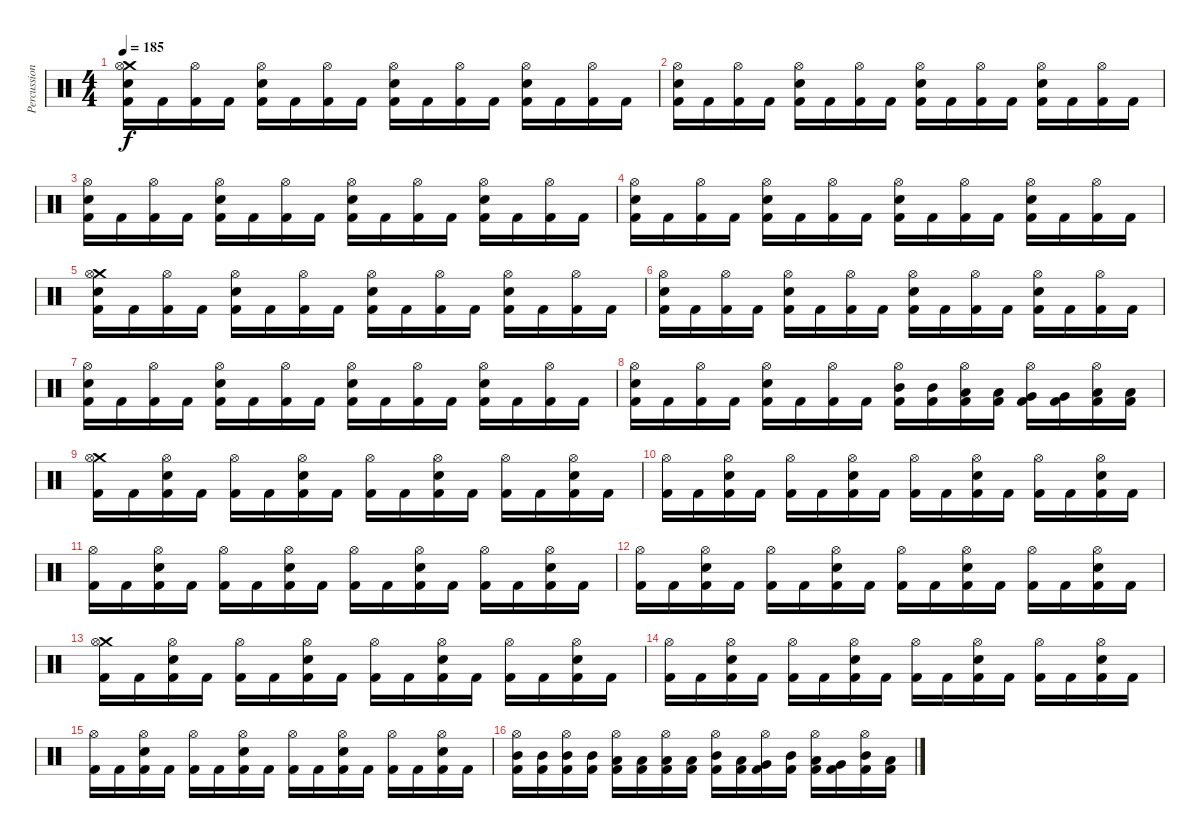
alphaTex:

\track ("Percussion" "Percussion") {instrument percussion}
\staff {score}
\articulation defaults
\ts (4 4)
\tempo 185
\clef neutral
\ks c
("Crash medium (hit)" "Hi-Hat (open)" "Electric Snare (hit)" "Kick (hit) 2").16{dy f} "Kick (hit) 2".16 ("Hi-Hat (open)" "Kick (hit) 2").16 "Kick (hit) 2".16 ("Hi-Hat (open)" "Electric Snare (hit)" "Kick (hit) 2").16 "Kick (hit) 2".16 ("Hi-Hat (open)" "Kick (hit) 2").16 "Kick (hit) 2".16 ("Hi-Hat (open)" "Electric Snare (hit)" "Kick (hit) 2").16 "Kick (hit) 2".16 ("Hi-Hat (open)" "Kick (hit) 2").16 "Kick (hit) 2".16 ("Hi-Hat (open)" "Electric Snare (hit)" "Kick (hit) 2").16 "Kick (hit) 2".16 ("Hi-Hat (open)" "Kick (hit) 2").16 "Kick (hit) 2".16 |
("Hi-Hat (open)" "Electric Snare (hit)" "Kick (hit) 2").16 "Kick (hit) 2".16 ("Hi-Hat (open)" "Kick (hit) 2").16 "Kick (hit) 2".16 ("Hi-Hat (open)" "Electric Snare (hit)" "Kick (hit) 2").16 "Kick (hit) 2".16 ("Hi-Hat (open)" "Kick (hit) 2").16 "Kick (hit) 2".16 ("Hi-Hat (open)" "Electric Snare (hit)" "Kick (hit) 2").16 "Kick (hit) 2".16 ("Hi-Hat (open)" "Kick (hit) 2").16 "Kick (hit) 2".16 ("Hi-Hat (open)" "Electric Snare (hit)" "Kick (hit) 2").16 "Kick (hit) 2".16 ("Hi-Hat (open)" "Kick (hit) 2").16 "Kick (hit) 2".16 |
("Hi-Hat (open)" "Electric Snare (hit)" "Kick (hit) 2").16 "Kick (hit) 2".16 ("Hi-Hat (open)" "Kick (hit) 2").16 "Kick (hit) 2".16 ("Hi-Hat (open)" "Electric Snare (hit)" "Kick (hit) 2").16 "Kick (hit) 2".16 ("Hi-Hat (open)" "Kick (hit) 2").16 "Kick (hit) 2".16 ("Hi-Hat (open)" "Electric Snare (hit)" "Kick (hit) 2").16 "Kick (hit) 2".16 ("Hi-Hat (open)" "Kick (hit) 2").16 "Kick (hit) 2".16 ("Hi-Hat (open)" "Electric Snare (hit)" "Kick (hit) 2").16 "Kick (hit) 2".16 ("Hi-Hat (open)" "Kick (hit) 2").16 "Kick (hit) 2".16 |
("Hi-Hat (open)" "Electric Snare (hit)" "Kick (hit) 2").16 "Kick (hit) 2".16 ("Hi-Hat (open)" "Kick (hit) 2").16 "Kick (hit) 2".16 ("Hi-Hat (open)" "Electric Snare (hit)" "Kick (hit) 2").16 "Kick (hit) 2".16 ("Hi-Hat (open)" "Kick (hit) 2").16 "Kick (hit) 2".16 ("Hi-Hat (open)" "Electric Snare (hit)" "Kick (hit) 2").16 "Kick (hit) 2".16 ("Hi-Hat (open)" "Kick (hit) 2").16 "Kick (hit) 2".16 ("Hi-Hat (open)" "Electric Snare (hit)" "Kick (hit) 2").16 "Kick (hit) 2".16 ("Hi-Hat (open)" "Kick (hit) 2").16 "Kick (hit) 2".16 |
("Crash medium (hit)" "Hi-Hat (open)" "Electric Snare (hit)" "Kick (hit) 2").16 "Kick (hit) 2".16 ("Hi-Hat (open)" "Kick (hit) 2").16 "Kick (hit) 2".16 ("Hi-Hat (open)" "Electric Snare (hit)" "Kick (hit) 2").16 "Kick (hit) 2".16 ("Hi-Hat (open)" "Kick (hit) 2").16 "Kick (hit) 2".16 ("Hi-Hat (open)" "Electric Snare (hit)" "Kick (hit) 2").16 "Kick (hit) 2".16 ("Hi-Hat (open)" "Kick (hit) 2").16 "Kick (hit) 2".16 ("Hi-Hat (open)" "Electric Snare (hit)" "Kick (hit) 2").16 "Kick (hit) 2".16 ("Hi-Hat (open)" "Kick (hit) 2").16 "Kick (hit) 2".16 |
("Hi-Hat (open)" "Electric Snare (hit)" "Kick (hit) 2").16 "Kick (hit) 2".16 ("Hi-Hat (open)" "Kick (hit) 2").16 "Kick (hit) 2".16 ("Hi-Hat (open)" "Electric Snare (hit)" "Kick (hit) 2").16 "Kick (hit) 2".16 ("Hi-Hat (open)" "Kick (hit) 2").16 "Kick (hit) 2".16 ("Hi-Hat (open)" "Electric Snare (hit)" "Kick (hit) 2").16 "Kick (hit) 2".16 ("Hi-Hat (open)" "Kick (hit) 2").16 "Kick (hit) 2".16 ("Hi-Hat (open)" "Electric Snare (hit)" "Kick (hit) 2").16 "Kick (hit) 2".16 ("Hi-Hat (open)" "Kick (hit) 2").16 "Kick (hit) 2".16 |
("Hi-Hat (open)" "Electric Snare (hit)" "Kick (hit) 2").16 "Kick (hit) 2".16 ("Hi-Hat (open)" "Kick (hit) 2").16 "Kick (hit) 2".16 ("Hi-Hat (open)" "Electric Snare (hit)" "Kick (hit) 2").16 "Kick (hit) 2".16 ("Hi-Hat (open)" "Kick (hit) 2").16 "Kick (hit) 2".16 ("Hi-Hat (open)" "Electric Snare (hit)" "Kick (hit) 2").16 "Kick (hit) 2".16 ("Hi-Hat (open)" "Kick (hit) 2").16 "Kick (hit) 2".16 ("Hi-Hat (open)" "Electric Snare (hit)" "Kick (hit) 2").16 "Kick (hit) 2".16 ("Hi-Hat (open)" "Kick (hit) 2").16 "Kick (hit) 2".16 |
("Hi-Hat (open)" "Electric Snare (hit)" "Kick (hit) 2").16 "Kick (hit) 2".16 ("Hi-Hat (open)" "Kick (hit) 2").16 "Kick (hit) 2".16 ("Hi-Hat (open)" "Electric Snare (hit)" "Kick (hit) 2").16 "Kick (hit) 2".16 ("Hi-Hat (open)" "Kick (hit) 2").16 "Kick (hit) 2".16 ("Hi-Hat (open)" "Mid Tom (hit)" "Kick (hit) 2").16 ("Mid Tom (hit)" "Kick (hit) 2").16 ("Hi-Hat (open)" "Low Tom (hit)" "Kick (hit) 2").16 ("Low Tom (hit)" "Kick (hit) 2").16 ("Hi-Hat (open)" "Very Low Tom (hit)" "Kick (hit) 2").16 ("Very Low Tom (hit)" "Kick (hit) 2").16 ("Hi-Hat (open)" "Low Floor Tom (hit)" "Kick (hit) 2").16 ("Low Floor Tom (hit)" "Kick (hit) 2").16 |
("Crash medium (hit)" "Hi-Hat (open)" "Kick (hit) 2").16 "Kick (hit) 2".16 ("Hi-Hat (open)" "Electric Snare (hit)" "Kick (hit) 2").16 "Kick (hit) 2".16 ("Hi-Hat (open)" "Kick (hit) 2").16 "Kick (hit) 2".16 ("Hi-Hat (open)" "Electric Snare (hit)" "Kick (hit) 2").16 "Kick (hit) 2".16 ("Hi-Hat (open)" "Kick (hit) 2").16 "Kick (hit) 2".16 ("Hi-Hat (open)" "Electric Snare (hit)" "Kick (hit) 2").16 "Kick (hit) 2".16 ("Hi-Hat (open)" "Kick (hit) 2").16 "Kick (hit) 2".16 ("Hi-Hat (open)" "Electric Snare (hit)" "Kick (hit) 2").16 "Kick (hit) 2".16 |
("Hi-Hat (open)" "Kick (hit) 2").16 "Kick (hit) 2".16 ("Hi-Hat (open)" "Electric Snare (hit)" "Kick (hit) 2").16 "Kick (hit) 2".16 ("Hi-Hat (open)" "Kick (hit) 2").16 "Kick (hit) 2".16 ("Hi-Hat (open)" "Electric Snare (hit)" "Kick (hit) 2").16 "Kick (hit) 2".16 ("Hi-Hat (open)" "Kick (hit) 2").16 "Kick (hit) 2".16 ("Hi-Hat (open)" "Electric Snare (hit)" "Kick (hit) 2").16 "Kick (hit) 2".16 ("Hi-Hat (open)" "Kick (hit) 2").16 "Kick (hit) 2".16 ("Hi-Hat (open)" "Electric Snare (hit)" "Kick (hit) 2").16 "Kick (hit) 2".16 |
("Hi-Hat (open)" "Kick (hit) 2").16 "Kick (hit) 2".16 ("Hi-Hat (open)" "Electric Snare (hit)" "Kick (hit) 2").16 "Kick (hit) 2".16 ("Hi-Hat (open)" "Kick (hit) 2").16 "Kick (hit) 2".16 ("Hi-Hat (open)" "Electric Snare (hit)" "Kick (hit) 2").16 "Kick (hit) 2".16 ("Hi-Hat (open)" "Kick (hit) 2").16 "Kick (hit) 2".16 ("Hi-Hat (open)" "Electric Snare (hit)" "Kick (hit) 2").16 "Kick (hit) 2".16 ("Hi-Hat (open)" "Kick (hit) 2").16 "Kick (hit) 2".16 ("Hi-Hat (open)" "Electric Snare (hit)" "Kick (hit) 2").16 "Kick (hit) 2".16 |
("Hi-Hat (open)" "Kick (hit) 2").16 "Kick (hit) 2".16 ("Hi-Hat (open)" "Electric Snare (hit)" "Kick (hit) 2").16 "Kick (hit) 2".16 ("Hi-Hat (open)" "Kick (hit) 2").16 "Kick (hit) 2".16 ("Hi-Hat (open)" "Electric Snare (hit)" "Kick (hit) 2").16 "Kick (hit) 2".16 ("Hi-Hat (open)" "Kick (hit) 2").16 "Kick (hit) 2".16 ("Hi-Hat (open)" "Electric Snare (hit)" "Kick (hit) 2").16 "Kick (hit) 2".16 ("Hi-Hat (open)" "Kick (hit) 2").16 "Kick (hit) 2".16 ("Hi-Hat (open)" "Electric Snare (hit)" "Kick (hit) 2").16 "Kick (hit) 2".16 |
("Crash medium (hit)" "Hi-Hat (open)" "Kick (hit) 2").16 "Kick (hit) 2".16 ("Hi-Hat (open)" "Electric Snare (hit)" "Kick (hit) 2").16 "Kick (hit) 2".16 ("Hi-Hat (open)" "Kick (hit) 2").16 "Kick (hit) 2".16 ("Hi-Hat (open)" "Electric Snare (hit)" "Kick (hit) 2").16 "Kick (hit) 2".16 ("Hi-Hat (open)" "Kick (hit) 2").16 "Kick (hit) 2".16 ("Hi-Hat (open)" "Electric Snare (hit)" "Kick (hit) 2").16 "Kick (hit) 2".16 ("Hi-Hat (open)" "Kick (hit) 2").16 "Kick (hit) 2".16 ("Hi-Hat (open)" "Electric Snare (hit)" "Kick (hit) 2").16 "Kick (hit) 2".16 |
("Hi-Hat (open)" "Kick (hit) 2").16 "Kick (hit) 2".16 ("Hi-Hat (open)" "Electric Snare (hit)" "Kick (hit) 2").16 "Kick (hit) 2".16 ("Hi-Hat (open)" "Kick (hit) 2").16 "Kick (hit) 2".16 ("Hi-Hat (open)" "Electric Snare (hit)" "Kick (hit) 2").16 "Kick (hit) 2".16 ("Hi-Hat (open)" "Kick (hit) 2").16 "Kick (hit) 2".16 ("Hi-Hat (open)" "Electric Snare (hit)" "Kick (hit) 2").16 "Kick (hit) 2".16 ("Hi-Hat (open)" "Kick (hit) 2").16 "Kick (hit) 2".16 ("Hi-Hat (open)" "Electric Snare (hit)" "Kick (hit) 2").16 "Kick (hit) 2".16 |
("Hi-Hat (open)" "Kick (hit) 2").16 "Kick (hit) 2".16 ("Hi-Hat (open)" "Electric Snare (hit)" "Kick (hit) 2").16 "Kick (hit) 2".16 ("Hi-Hat (open)" "Kick (hit) 2").16 "Kick (hit) 2".16 ("Hi-Hat (open)" "Electric Snare (hit)" "Kick (hit) 2").16 "Kick (hit) 2".16 ("Hi-Hat (open)" "Kick (hit) 2").16 "Kick (hit) 2".16 ("Hi-Hat (open)" "Electric Snare (hit)" "Kick (hit) 2").16 "Kick (hit) 2".16 ("Hi-Hat (open)" "Kick (hit) 2").16 "Kick (hit) 2".16 ("Hi-Hat (open)" "Electric Snare (hit)" "Kick (hit) 2").16 "Kick (hit) 2".16 |
("Hi-Hat (open)" "Mid Tom (hit)" "Kick (hit) 2").16 ("Mid Tom (hit)" "Kick (hit) 2").16 ("Hi-Hat (open)" "Mid Tom (hit)" "Kick (hit) 2").16 ("Mid Tom (hit)" "Kick (hit) 2").16 ("Hi-Hat (open)" "Low Tom (hit)" "Kick (hit) 2").16 ("Low Tom (hit)" "Kick (hit) 2").16 ("Hi-Hat (open)" "Low Tom (hit)" "Kick (hit) 2").16 ("Low Tom (hit)" "Kick (hit) 2").16 ("Hi-Hat (open)" "Mid Tom (hit)" "Kick (hit) 2").16 ("Low Tom (hit)" "Kick (hit) 2").16 ("Hi-Hat (open)" "Very Low Tom (hit)" "Kick (hit) 2").16 ("Mid Tom (hit)" "Kick (hit) 2").16 ("Hi-Hat (open)" "Low Tom (hit)" "Kick (hit) 2").16 ("Very Low Tom (hit)" "Kick (hit) 2").16 ("Hi-Hat (open)" "Mid Tom (hit)" "Kick (hit) 2").16 ("Low Tom (hit)" "Kick (hit) 2").16
